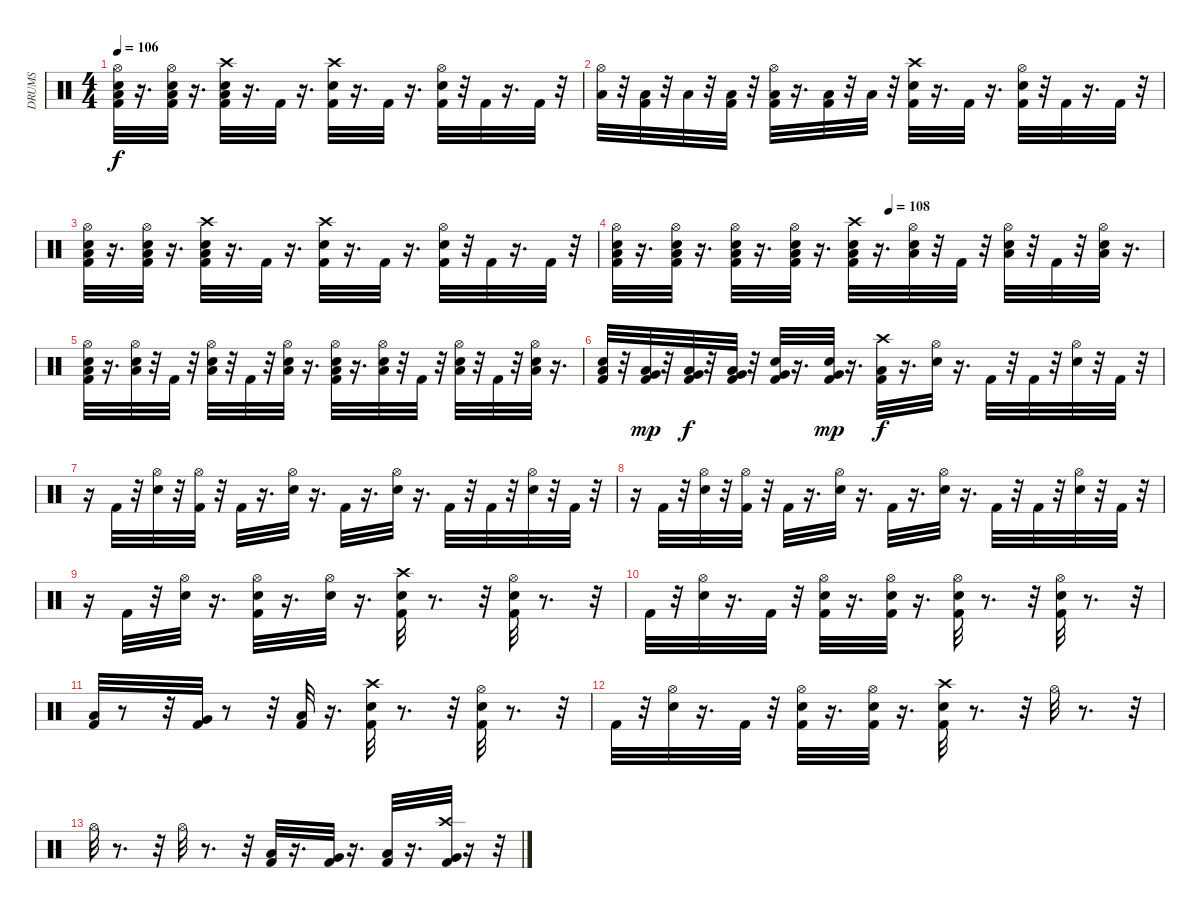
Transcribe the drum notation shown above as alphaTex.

\track ("DRUMS" "DRUMS") {instrument percussion}
\staff {score}
\articulation defaults
\ts (4 4)
\tempo 106
\clef neutral
\ks c
("Hi-Hat (open)" "Low Tom (hit)" "Kick (hit) 2" "Electric Snare (hit)").32{dy f} r.16{d} ("Hi-Hat (open)" "Low Tom (hit)" "Kick (hit) 2" "Electric Snare (hit)").32 r.16{d} ("Kick (hit) 2" "Crash high (hit)" "Low Tom (hit)" "Electric Snare (hit)").32 r.16{d} "Kick (hit) 2".32 r.16{d} ("Kick (hit) 2" "Electric Snare (hit)" "Crash high (hit)").32 r.16{d} "Kick (hit) 2".32 r.16{d} ("Kick (hit) 2" "Hi-Hat (open)" "Electric Snare (hit)").32 r.32 "Kick (hit) 2".32 r.16{d} "Kick (hit) 2".32 r.32 |
("Hi-Hat (open)" "Low Tom (hit)").32 r.32 ("Kick (hit) 2" "Low Tom (hit)").32 r.32 "Low Tom (hit)".32 r.32 ("Kick (hit) 2" "Low Tom (hit)").32 r.32 ("Kick (hit) 2" "Hi-Hat (open)" "Low Tom (hit)").32 r.16{d} ("Kick (hit) 2" "Low Tom (hit)").32 r.32 "Low Tom (hit)".32 r.32 ("Kick (hit) 2" "Electric Snare (hit)" "Crash high (hit)").32 r.16{d} "Kick (hit) 2".32 r.16{d} ("Kick (hit) 2" "Electric Snare (hit)" "Hi-Hat (open)").32 r.32 "Kick (hit) 2".32 r.16{d} "Kick (hit) 2".32 r.32 |
("Electric Snare (hit)" "Hi-Hat (open)" "Low Tom (hit)" "Kick (hit) 2").32 r.16{d} ("Hi-Hat (open)" "Electric Snare (hit)" "Low Tom (hit)" "Kick (hit) 2").32 r.16{d} ("Kick (hit) 2" "Electric Snare (hit)" "Low Tom (hit)" "Crash high (hit)").32 r.16{d} "Kick (hit) 2".32 r.16{d} ("Kick (hit) 2" "Electric Snare (hit)" "Crash high (hit)").32 r.16{d} "Kick (hit) 2".32 r.16{d} ("Kick (hit) 2" "Electric Snare (hit)" "Hi-Hat (open)").32 r.32 "Kick (hit) 2".32 r.16{d} "Kick (hit) 2".32 r.32 |
\tempo (108 0.5)
("Electric Snare (hit)" "Hi-Hat (open)" "Kick (hit) 2" "Low Tom (hit)").32 r.16{d} ("Hi-Hat (open)" "Electric Snare (hit)" "Kick (hit) 2" "Low Tom (hit)").32 r.16{d} ("Kick (hit) 2" "Electric Snare (hit)" "Hi-Hat (open)" "Low Tom (hit)").32 r.16{d} ("Kick (hit) 2" "Hi-Hat (open)" "Electric Snare (hit)" "Low Tom (hit)").32 r.16{d} ("Electric Snare (hit)" "Kick (hit) 2" "Low Tom (hit)" "Crash high (hit)").32 r.16{d} ("Hi-Hat (open)" "Electric Snare (hit)" "Low Tom (hit)").32 r.32 "Kick (hit) 2".32 r.32 ("Electric Snare (hit)" "Hi-Hat (open)" "Low Tom (hit)").32 r.32 "Kick (hit) 2".32 r.32 ("Hi-Hat (open)" "Electric Snare (hit)" "Low Tom (hit)").32 r.16{d} |
("Electric Snare (hit)" "Hi-Hat (open)" "Kick (hit) 2" "Low Tom (hit)").32 r.16{d} ("Hi-Hat (open)" "Electric Snare (hit)" "Low Tom (hit)").32 r.32 "Kick (hit) 2".32 r.32 ("Electric Snare (hit)" "Hi-Hat (open)" "Low Tom (hit)").32 r.32 "Kick (hit) 2".32 r.32 ("Hi-Hat (open)" "Electric Snare (hit)" "Low Tom (hit)").32 r.16{d} ("Electric Snare (hit)" "Hi-Hat (open)" "Kick (hit) 2" "Low Tom (hit)").32 r.16{d} ("Hi-Hat (open)" "Electric Snare (hit)" "Low Tom (hit)").32 r.32 "Kick (hit) 2".32 r.32 ("Electric Snare (hit)" "Hi-Hat (open)" "Low Tom (hit)").32 r.32 "Kick (hit) 2".32 r.32 ("Hi-Hat (open)" "Electric Snare (hit)" "Low Tom (hit)").32 r.16{d} |
("Kick (hit) 2" "Electric Snare (hit)" "Low Tom (hit)").32 r.32 ("Low Tom (hit)" "Kick (hit) 2" "Very Low Tom (hit)").32{dy mp} r.32 ("Kick (hit) 2" "Low Tom (hit)" "Very Low Tom (hit)").32{dy f} r.32 ("Low Tom (hit)" "Kick (hit) 2" "Very Low Tom (hit)").32 r.32 ("Kick (hit) 2" "Very Low Tom (hit)" "Electric Snare (hit)").32 r.16{d} ("Kick (hit) 2" "Very Low Tom (hit)" "Electric Snare (hit)").32{dy mp} r.16{d} ("Kick (hit) 2" "Crash high (hit)" "Low Tom (hit)").32{dy f} r.16{d} ("Electric Snare (hit)" "Hi-Hat (open)").32 r.16{d} "Kick (hit) 2".32 r.32 "Kick (hit) 2".32 r.32 ("Electric Snare (hit)" "Hi-Hat (open)").32 r.32 "Kick (hit) 2".32 r.32 |
r.16 "Kick (hit) 2".32 r.32 ("Electric Snare (hit)" "Hi-Hat (open)").32 r.32 ("Hi-Hat (open)" "Kick (hit) 2").32 r.32 "Kick (hit) 2".32 r.16{d} ("Electric Snare (hit)" "Hi-Hat (open)").32 r.16{d} "Kick (hit) 2".32 r.16{d} ("Electric Snare (hit)" "Hi-Hat (open)").32 r.16{d} "Kick (hit) 2".32 r.32 "Kick (hit) 2".32 r.32 ("Electric Snare (hit)" "Hi-Hat (open)").32 r.32 "Kick (hit) 2".32 r.32 |
r.16 "Kick (hit) 2".32 r.32 ("Electric Snare (hit)" "Hi-Hat (open)").32 r.32 ("Hi-Hat (open)" "Kick (hit) 2").32 r.32 "Kick (hit) 2".32 r.16{d} ("Electric Snare (hit)" "Hi-Hat (open)").32 r.16{d} "Kick (hit) 2".32 r.16{d} ("Electric Snare (hit)" "Hi-Hat (open)").32 r.16{d} "Kick (hit) 2".32 r.32 "Kick (hit) 2".32 r.32 ("Electric Snare (hit)" "Hi-Hat (open)").32 r.32 "Kick (hit) 2".32 r.32 |
r.16 "Kick (hit) 2".32 r.32 ("Electric Snare (hit)" "Hi-Hat (open)").32 r.16{d} ("Kick (hit) 2" "Electric Snare (hit)" "Hi-Hat (open)").32 r.16{d} ("Electric Snare (hit)" "Hi-Hat (open)").32 r.16{d} ("Kick (hit) 2" "Electric Snare (hit)" "Crash high (hit)").32 r.8{d} r.32 ("Electric Snare (hit)" "Kick (hit) 2" "Hi-Hat (open)").32 r.8{d} r.32 |
"Kick (hit) 2".32 r.32 ("Electric Snare (hit)" "Hi-Hat (open)").32 r.16{d} "Kick (hit) 2".32 r.32 ("Electric Snare (hit)" "Kick (hit) 2" "Hi-Hat (open)").32 r.16{d} ("Electric Snare (hit)" "Kick (hit) 2" "Hi-Hat (open)").32 r.16{d} ("Kick (hit) 2" "Electric Snare (hit)" "Hi-Hat (open)").32 r.8{d} r.32 ("Electric Snare (hit)" "Kick (hit) 2" "Hi-Hat (open)").32 r.8{d} r.32 |
("Kick (hit) 2" "Low Tom (hit)").32 r.8 r.32 ("Kick (hit) 2" "Very Low Tom (hit)").32 r.8 r.32 ("Kick (hit) 2" "Low Floor Tom (hit)").32 r.16{d} ("Kick (hit) 2" "Electric Snare (hit)" "Crash high (hit)").32 r.8{d} r.32 ("Electric Snare (hit)" "Kick (hit) 2" "Hi-Hat (open)").32 r.8{d} r.32 |
"Kick (hit) 2".32 r.32 ("Electric Snare (hit)" "Hi-Hat (open)").32 r.16{d} "Kick (hit) 2".32 r.32 ("Electric Snare (hit)" "Kick (hit) 2" "Hi-Hat (open)").32 r.16{d} ("Electric Snare (hit)" "Kick (hit) 2" "Hi-Hat (open)").32 r.16{d} ("Kick (hit) 2" "Electric Snare (hit)" "Crash high (hit)").32 r.8{d} r.32 "Hi-Hat (open)".32 r.8{d} r.32 |
"Hi-Hat (open)".32 r.8{d} r.32 "Hi-Hat (open)".32 r.8{d} r.32 ("Kick (hit) 2" "Low Floor Tom (hit)").32 r.16{d} ("Kick (hit) 2" "Very Low Tom (hit)").32 r.16{d} ("Kick (hit) 2" "Low Tom (hit)").32 r.16{d} ("Kick (hit) 2" "Very Low Tom (hit)" "Crash high (hit)").32 r.16 r.32
